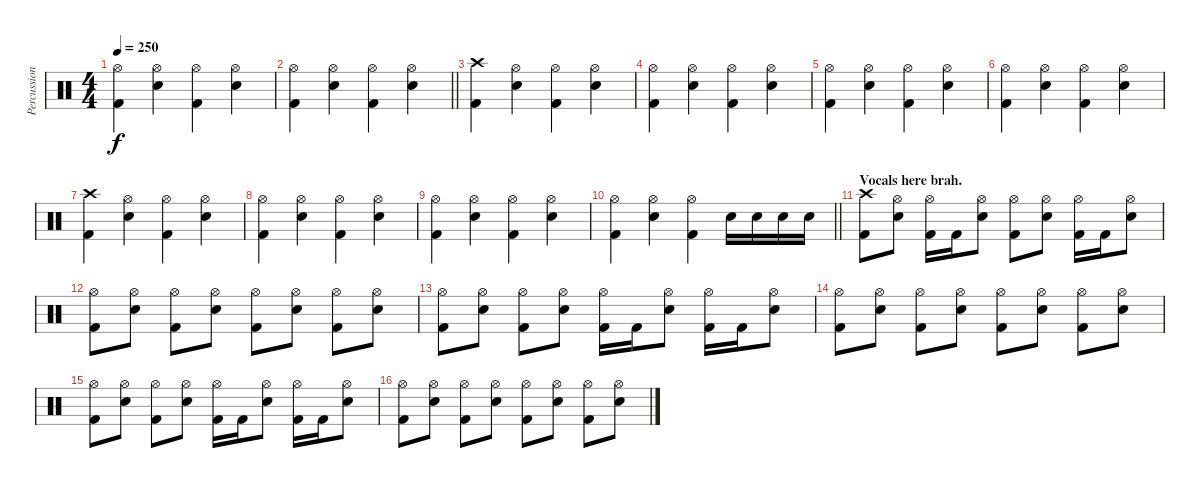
\track ("Percussion" "Percussion") {instrument percussion}
\staff {score}
\articulation defaults
\ts (4 4)
\tempo 250
\clef neutral
\ks c
("Hi-Hat (open)" "Kick (hit) 2").4{dy f} ("Hi-Hat (open)" "Electric Snare (hit)").4 ("Hi-Hat (open)" "Kick (hit) 2").4 ("Hi-Hat (open)" "Electric Snare (hit)").4 |
\barLineRight lightlight
("Hi-Hat (open)" "Kick (hit) 2").4 ("Hi-Hat (open)" "Electric Snare (hit)").4 ("Hi-Hat (open)" "Kick (hit) 2").4 ("Hi-Hat (open)" "Electric Snare (hit)").4 |
("Crash high (hit)" "Kick (hit) 2").4 ("Hi-Hat (open)" "Electric Snare (hit)").4 ("Hi-Hat (open)" "Kick (hit) 2").4 ("Hi-Hat (open)" "Electric Snare (hit)").4 |
("Hi-Hat (open)" "Kick (hit) 2").4 ("Hi-Hat (open)" "Electric Snare (hit)").4 ("Hi-Hat (open)" "Kick (hit) 2").4 ("Hi-Hat (open)" "Electric Snare (hit)").4 |
("Hi-Hat (open)" "Kick (hit) 2").4 ("Hi-Hat (open)" "Electric Snare (hit)").4 ("Hi-Hat (open)" "Kick (hit) 2").4 ("Hi-Hat (open)" "Electric Snare (hit)").4 |
("Hi-Hat (open)" "Kick (hit) 2").4 ("Hi-Hat (open)" "Electric Snare (hit)").4 ("Hi-Hat (open)" "Kick (hit) 2").4 ("Hi-Hat (open)" "Electric Snare (hit)").4 |
("Crash high (hit)" "Kick (hit) 2").4 ("Hi-Hat (open)" "Electric Snare (hit)").4 ("Hi-Hat (open)" "Kick (hit) 2").4 ("Hi-Hat (open)" "Electric Snare (hit)").4 |
("Hi-Hat (open)" "Kick (hit) 2").4 ("Hi-Hat (open)" "Electric Snare (hit)").4 ("Hi-Hat (open)" "Kick (hit) 2").4 ("Hi-Hat (open)" "Electric Snare (hit)").4 |
("Hi-Hat (open)" "Kick (hit) 2").4 ("Hi-Hat (open)" "Electric Snare (hit)").4 ("Hi-Hat (open)" "Kick (hit) 2").4 ("Hi-Hat (open)" "Electric Snare (hit)").4 |
\barLineRight lightlight
("Hi-Hat (open)" "Kick (hit) 2").4 ("Hi-Hat (open)" "Electric Snare (hit)").4 ("Hi-Hat (open)" "Kick (hit) 2").4 "Electric Snare (hit)".16 "Electric Snare (hit)".16 "Electric Snare (hit)".16 "Electric Snare (hit)".16 |
\section ("" "Vocals here brah.")
("Crash high (hit)" "Kick (hit) 2").8 ("Hi-Hat (open)" "Electric Snare (hit)").8 ("Hi-Hat (open)" "Kick (hit) 2").16 "Kick (hit) 2".16 ("Hi-Hat (open)" "Electric Snare (hit)").8 ("Hi-Hat (open)" "Kick (hit) 2").8 ("Hi-Hat (open)" "Electric Snare (hit)").8 ("Hi-Hat (open)" "Kick (hit) 2").16 "Kick (hit) 2".16 ("Hi-Hat (open)" "Electric Snare (hit)").8 |
("Hi-Hat (open)" "Kick (hit) 2").8 ("Hi-Hat (open)" "Electric Snare (hit)").8 ("Hi-Hat (open)" "Kick (hit) 2").8 ("Hi-Hat (open)" "Electric Snare (hit)").8 ("Hi-Hat (open)" "Kick (hit) 2").8 ("Hi-Hat (open)" "Electric Snare (hit)").8 ("Hi-Hat (open)" "Kick (hit) 2").8 ("Hi-Hat (open)" "Electric Snare (hit)").8 |
("Hi-Hat (open)" "Kick (hit) 2").8 ("Hi-Hat (open)" "Electric Snare (hit)").8 ("Hi-Hat (open)" "Kick (hit) 2").8 ("Hi-Hat (open)" "Electric Snare (hit)").8 ("Hi-Hat (open)" "Kick (hit) 2").16 "Kick (hit) 2".16 ("Hi-Hat (open)" "Electric Snare (hit)").8 ("Hi-Hat (open)" "Kick (hit) 2").16 "Kick (hit) 2".16 ("Hi-Hat (open)" "Electric Snare (hit)").8 |
("Hi-Hat (open)" "Kick (hit) 2").8 ("Hi-Hat (open)" "Electric Snare (hit)").8 ("Hi-Hat (open)" "Kick (hit) 2").8 ("Hi-Hat (open)" "Electric Snare (hit)").8 ("Hi-Hat (open)" "Kick (hit) 2").8 ("Hi-Hat (open)" "Electric Snare (hit)").8 ("Hi-Hat (open)" "Kick (hit) 2").8 ("Hi-Hat (open)" "Electric Snare (hit)").8 |
("Hi-Hat (open)" "Kick (hit) 2").8 ("Hi-Hat (open)" "Electric Snare (hit)").8 ("Hi-Hat (open)" "Kick (hit) 2").8 ("Hi-Hat (open)" "Electric Snare (hit)").8 ("Hi-Hat (open)" "Kick (hit) 2").16 "Kick (hit) 2".16 ("Hi-Hat (open)" "Electric Snare (hit)").8 ("Hi-Hat (open)" "Kick (hit) 2").16 "Kick (hit) 2".16 ("Hi-Hat (open)" "Electric Snare (hit)").8 |
("Hi-Hat (open)" "Kick (hit) 2").8 ("Hi-Hat (open)" "Electric Snare (hit)").8 ("Hi-Hat (open)" "Kick (hit) 2").8 ("Hi-Hat (open)" "Electric Snare (hit)").8 ("Hi-Hat (open)" "Kick (hit) 2").8 ("Hi-Hat (open)" "Electric Snare (hit)").8 ("Hi-Hat (open)" "Kick (hit) 2").8 ("Hi-Hat (open)" "Electric Snare (hit)").8
